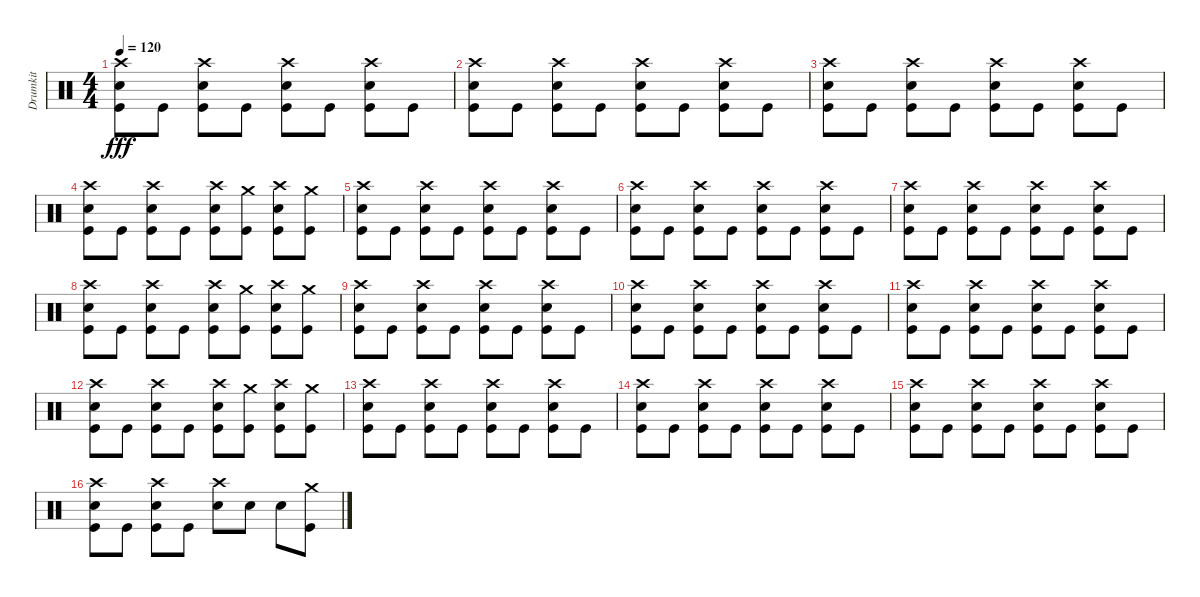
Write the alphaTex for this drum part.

\track ("Drumkit" "Drumkit") {instrument percussion}
\staff {score}
\articulation defaults
\ts (4 4)
\tempo 120
\clef neutral
\ks c
("Kick (hit)" "Snare (hit) 2" "Crash high (hit)").8{dy fff} "Kick (hit)".8 ("Kick (hit)" "Snare (hit) 2" "Crash high (hit)").8 "Kick (hit)".8 ("Kick (hit)" "Snare (hit) 2" "Crash high (hit)").8 "Kick (hit)".8 ("Kick (hit)" "Snare (hit) 2" "Crash high (hit)").8 "Kick (hit)".8 |
("Kick (hit)" "Snare (hit) 2" "Crash high (hit)").8 "Kick (hit)".8 ("Kick (hit)" "Snare (hit) 2" "Crash high (hit)").8 "Kick (hit)".8 ("Kick (hit)" "Snare (hit) 2" "Crash high (hit)").8 "Kick (hit)".8 ("Kick (hit)" "Snare (hit) 2" "Crash high (hit)").8 "Kick (hit)".8 |
("Kick (hit)" "Snare (hit) 2" "Crash high (hit)").8 "Kick (hit)".8 ("Kick (hit)" "Snare (hit) 2" "Crash high (hit)").8 "Kick (hit)".8 ("Kick (hit)" "Snare (hit) 2" "Crash high (hit)").8 "Kick (hit)".8 ("Kick (hit)" "Snare (hit) 2" "Crash high (hit)").8 "Kick (hit)".8 |
("Kick (hit)" "Snare (hit) 2" "Crash high (hit)").8 "Kick (hit)".8 ("Kick (hit)" "Snare (hit) 2" "Crash high (hit)").8 "Kick (hit)".8 ("Kick (hit)" "Snare (hit) 2" "Crash high (hit)").8 ("Kick (hit)" "Crash medium (hit)").8 ("Kick (hit)" "Snare (hit) 2" "Crash high (hit)").8 ("Kick (hit)" "Crash medium (hit)").8 |
("Kick (hit)" "Snare (hit) 2" "Crash high (hit)").8 "Kick (hit)".8 ("Kick (hit)" "Snare (hit) 2" "Crash high (hit)").8 "Kick (hit)".8 ("Kick (hit)" "Snare (hit) 2" "Crash high (hit)").8 "Kick (hit)".8 ("Kick (hit)" "Snare (hit) 2" "Crash high (hit)").8 "Kick (hit)".8 |
("Kick (hit)" "Snare (hit) 2" "Crash high (hit)").8 "Kick (hit)".8 ("Kick (hit)" "Snare (hit) 2" "Crash high (hit)").8 "Kick (hit)".8 ("Kick (hit)" "Snare (hit) 2" "Crash high (hit)").8 "Kick (hit)".8 ("Kick (hit)" "Snare (hit) 2" "Crash high (hit)").8 "Kick (hit)".8 |
("Kick (hit)" "Snare (hit) 2" "Crash high (hit)").8 "Kick (hit)".8 ("Kick (hit)" "Snare (hit) 2" "Crash high (hit)").8 "Kick (hit)".8 ("Kick (hit)" "Snare (hit) 2" "Crash high (hit)").8 "Kick (hit)".8 ("Kick (hit)" "Snare (hit) 2" "Crash high (hit)").8 "Kick (hit)".8 |
("Kick (hit)" "Snare (hit) 2" "Crash high (hit)").8 "Kick (hit)".8 ("Kick (hit)" "Snare (hit) 2" "Crash high (hit)").8 "Kick (hit)".8 ("Kick (hit)" "Snare (hit) 2" "Crash high (hit)").8 ("Kick (hit)" "Crash medium (hit)").8 ("Kick (hit)" "Snare (hit) 2" "Crash high (hit)").8 ("Kick (hit)" "Crash medium (hit)").8 |
("Kick (hit)" "Snare (hit) 2" "Crash high (hit)").8 "Kick (hit)".8 ("Kick (hit)" "Snare (hit) 2" "Crash high (hit)").8 "Kick (hit)".8 ("Kick (hit)" "Snare (hit) 2" "Crash high (hit)").8 "Kick (hit)".8 ("Kick (hit)" "Snare (hit) 2" "Crash high (hit)").8 "Kick (hit)".8 |
("Kick (hit)" "Snare (hit) 2" "Crash high (hit)").8 "Kick (hit)".8 ("Kick (hit)" "Snare (hit) 2" "Crash high (hit)").8 "Kick (hit)".8 ("Kick (hit)" "Snare (hit) 2" "Crash high (hit)").8 "Kick (hit)".8 ("Kick (hit)" "Snare (hit) 2" "Crash high (hit)").8 "Kick (hit)".8 |
("Kick (hit)" "Snare (hit) 2" "Crash high (hit)").8 "Kick (hit)".8 ("Kick (hit)" "Snare (hit) 2" "Crash high (hit)").8 "Kick (hit)".8 ("Kick (hit)" "Snare (hit) 2" "Crash high (hit)").8 "Kick (hit)".8 ("Kick (hit)" "Snare (hit) 2" "Crash high (hit)").8 "Kick (hit)".8 |
("Kick (hit)" "Snare (hit) 2" "Crash high (hit)").8 "Kick (hit)".8 ("Kick (hit)" "Snare (hit) 2" "Crash high (hit)").8 "Kick (hit)".8 ("Kick (hit)" "Snare (hit) 2" "Crash high (hit)").8 ("Kick (hit)" "Crash medium (hit)").8 ("Kick (hit)" "Snare (hit) 2" "Crash high (hit)").8 ("Kick (hit)" "Crash medium (hit)").8 |
("Kick (hit)" "Snare (hit) 2" "Crash high (hit)").8 "Kick (hit)".8 ("Kick (hit)" "Snare (hit) 2" "Crash high (hit)").8 "Kick (hit)".8 ("Kick (hit)" "Snare (hit) 2" "Crash high (hit)").8 "Kick (hit)".8 ("Kick (hit)" "Snare (hit) 2" "Crash high (hit)").8 "Kick (hit)".8 |
("Kick (hit)" "Snare (hit) 2" "Crash high (hit)").8 "Kick (hit)".8 ("Kick (hit)" "Snare (hit) 2" "Crash high (hit)").8 "Kick (hit)".8 ("Kick (hit)" "Snare (hit) 2" "Crash high (hit)").8 "Kick (hit)".8 ("Kick (hit)" "Snare (hit) 2" "Crash high (hit)").8 "Kick (hit)".8 |
("Kick (hit)" "Snare (hit) 2" "Crash high (hit)").8 "Kick (hit)".8 ("Kick (hit)" "Snare (hit) 2" "Crash high (hit)").8 "Kick (hit)".8 ("Kick (hit)" "Snare (hit) 2" "Crash high (hit)").8 "Kick (hit)".8 ("Kick (hit)" "Snare (hit) 2" "Crash high (hit)").8 "Kick (hit)".8 |
("Kick (hit)" "Snare (hit) 2" "Crash high (hit)").8 "Kick (hit)".8 ("Kick (hit)" "Snare (hit) 2" "Crash high (hit)").8 "Kick (hit)".8 ("Snare (hit) 2" "Crash high (hit)").8 "Snare (hit) 2".8 "Snare (hit) 2".8 ("Crash medium (hit)" "Kick (hit)").8
